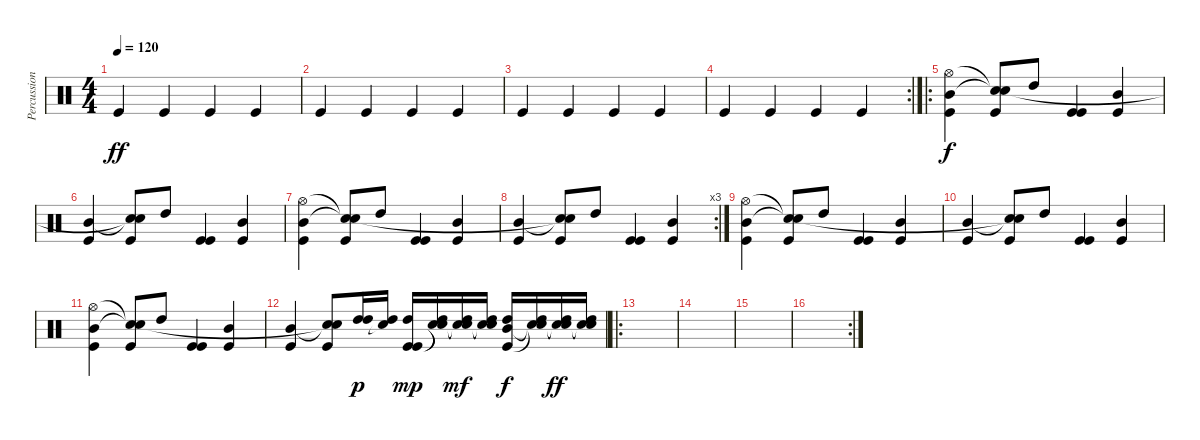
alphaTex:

\track ("Percussions" "Percussion") {instrument percussion}
\staff {score}
\articulation defaults
\ts (4 4)
\tempo 120
\clef neutral
\ks c "Kick (hit)".4{dy ff} "Kick (hit)".4 "Kick (hit)".4 "Kick (hit)".4
|
"Kick (hit)".4 "Kick (hit)".4 "Kick (hit)".4 "Kick (hit)".4 |
"Kick (hit)".4 "Kick (hit)".4 "Kick (hit)".4 "Kick (hit)".4 |
\rc 2 "Kick (hit)".4 "Kick (hit)".4 "Kick (hit)".4 "Kick (hit)".4
|
\ro
("Kick (hit)" "Mid Tom (hit)" "Hi-Hat (open)").4{dy f} ("Kick (hit)" "Snare (hit)"{t} "Snare (hit)"{t}).8 "High Tom (hit)".8 ("Kick (hit)" "Kick (hit)").4 ("Kick (hit)" "Mid Tom (hit)").4 |
("Kick (hit)" "Mid Tom (hit)").4 ("Kick (hit)" "Snare (hit)"{t} "Snare (hit)"{t}).8 "High Tom (hit)".8 ("Kick (hit)" "Kick (hit)").4 ("Kick (hit)" "Mid Tom (hit)").4 |
("Kick (hit)" "Mid Tom (hit)" "Hi-Hat (open)").4 ("Kick (hit)" "Snare (hit)"{t} "Snare (hit)"{t}).8 "High Tom (hit)".8 ("Kick (hit)" "Kick (hit)").4 ("Kick (hit)" "Mid Tom (hit)").4 |
\rc 3
("Kick (hit)" "Mid Tom (hit)").4 ("Kick (hit)" "Snare (hit)"{t} "Snare (hit)"{t}).8 "High Tom (hit)".8 ("Kick (hit)" "Kick (hit)").4 ("Kick (hit)" "Mid Tom (hit)").4 |
("Kick (hit)" "Mid Tom (hit)" "Hi-Hat (open)").4 ("Kick (hit)" "Snare (hit)"{t} "Snare (hit)"{t}).8 "High Tom (hit)".8 ("Kick (hit)" "Kick (hit)").4 ("Kick (hit)" "Mid Tom (hit)").4 |
("Kick (hit)" "Mid Tom (hit)").4 ("Kick (hit)" "Snare (hit)"{t} "Snare (hit)"{t}).8 "High Tom (hit)".8 ("Kick (hit)" "Kick (hit)").4 ("Kick (hit)" "Mid Tom (hit)").4 |
("Kick (hit)" "Mid Tom (hit)" "Hi-Hat (open)").4 ("Kick (hit)" "Snare (hit)"{t} "Snare (hit)"{t}).8 "High Tom (hit)".8 ("Kick (hit)" "Kick (hit)").4 ("Kick (hit)" "Mid Tom (hit)").4 |
("Kick (hit)" "Mid Tom (hit)").4 ("Kick (hit)" "Snare (hit)"{t} "Snare (hit)"{t}).8 ("High Tom (hit)" "High Tom (hit)").16{dy p} ("Snare (hit)"{t} "High Tom (hit)").16 ("Kick (hit)" "Kick (hit)" "High Tom (hit)").16{dy mp} ("Snare (hit)"{t} "Snare (hit)"{t} "High Tom (hit)").16 ("Snare (hit)"{t} "Snare (hit)"{t} "High Tom (hit)").16{dy mf} ("Snare (hit)"{t} "Snare (hit)"{t} "High Tom (hit)").16 ("Kick (hit)" "Mid Tom (hit)" "High Tom (hit)").16{dy f} ("Snare (hit)"{t} "Snare (hit)"{t} "High Tom (hit)").16 ("Snare (hit)"{t} "Snare (hit)"{t} "High Tom (hit)").16{dy ff} ("Snare (hit)"{t} "Snare (hit)"{t} "High Tom (hit)").16 |
\ro
|
|
|
\rc 2
